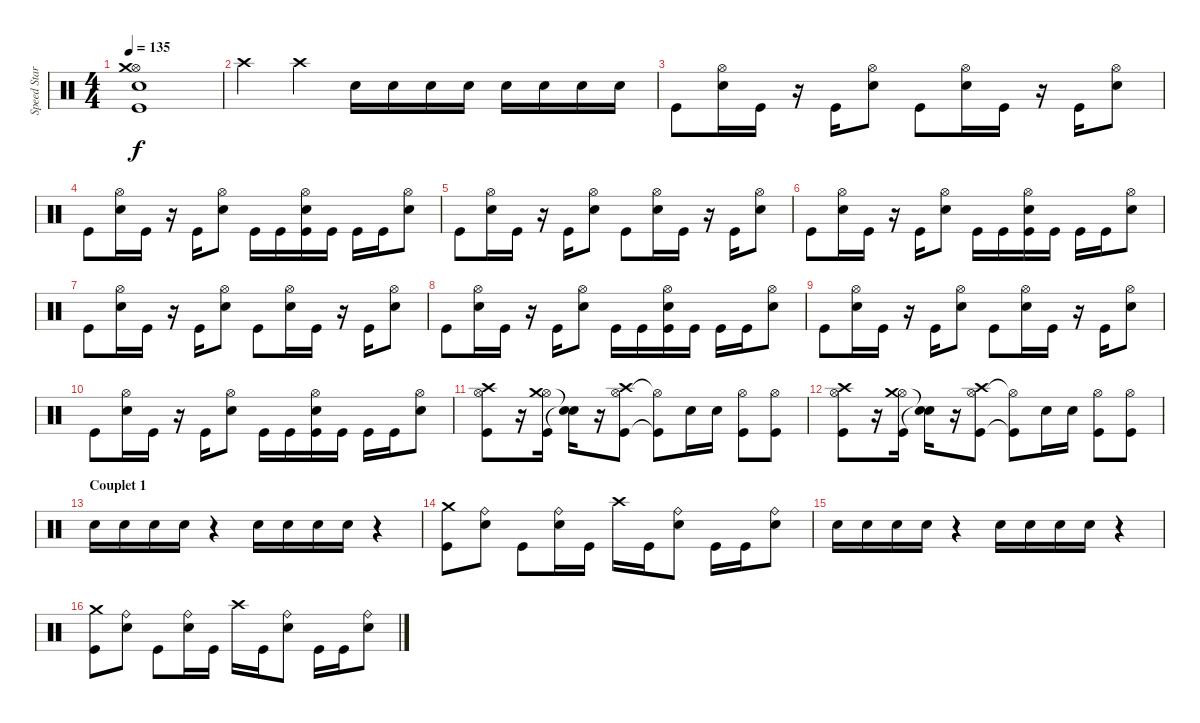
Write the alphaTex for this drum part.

\track ("Speed Star" "Speed Star") {instrument percussion}
\staff {score}
\articulation defaults
\ts (4 4)
\tempo 135
\clef neutral
\ks c
("Kick (hit)" "Snare (hit) 2" "Hi-Hat (open)" "Crash medium (hit)").1{dy f} |
"Crash high (hit)".4 "Crash high (hit)".4 "Snare (hit) 2".16 "Snare (hit) 2".16 "Snare (hit) 2".16 "Snare (hit) 2".16 "Snare (hit) 2".16 "Snare (hit) 2".16 "Snare (hit) 2".16 "Snare (hit) 2".16 |
"Kick (hit)".8 ("Snare (hit) 2" "Hi-Hat (open)").16 "Kick (hit)".16 r.16 "Kick (hit)".16 ("Snare (hit) 2" "Hi-Hat (open)").8 "Kick (hit)".8 ("Snare (hit) 2" "Hi-Hat (open)").16 "Kick (hit)".16 r.16 "Kick (hit)".16 ("Snare (hit) 2" "Hi-Hat (open)").8 |
"Kick (hit)".8 ("Snare (hit) 2" "Hi-Hat (open)").16 "Kick (hit)".16 r.16 "Kick (hit)".16 ("Snare (hit) 2" "Hi-Hat (open)").8 "Kick (hit)".16 "Kick (hit)".16 ("Kick (hit)" "Snare (hit) 2" "Hi-Hat (open)").16 "Kick (hit)".16 "Kick (hit)".16 "Kick (hit)".16 ("Snare (hit) 2" "Hi-Hat (open)").8 |
"Kick (hit)".8 ("Snare (hit) 2" "Hi-Hat (open)").16 "Kick (hit)".16 r.16 "Kick (hit)".16 ("Snare (hit) 2" "Hi-Hat (open)").8 "Kick (hit)".8 ("Snare (hit) 2" "Hi-Hat (open)").16 "Kick (hit)".16 r.16 "Kick (hit)".16 ("Snare (hit) 2" "Hi-Hat (open)").8 |
"Kick (hit)".8 ("Snare (hit) 2" "Hi-Hat (open)").16 "Kick (hit)".16 r.16 "Kick (hit)".16 ("Snare (hit) 2" "Hi-Hat (open)").8 "Kick (hit)".16 "Kick (hit)".16 ("Kick (hit)" "Snare (hit) 2" "Hi-Hat (open)").16 "Kick (hit)".16 "Kick (hit)".16 "Kick (hit)".16 ("Snare (hit) 2" "Hi-Hat (open)").8 |
"Kick (hit)".8 ("Snare (hit) 2" "Hi-Hat (open)").16 "Kick (hit)".16 r.16 "Kick (hit)".16 ("Snare (hit) 2" "Hi-Hat (open)").8 "Kick (hit)".8 ("Snare (hit) 2" "Hi-Hat (open)").16 "Kick (hit)".16 r.16 "Kick (hit)".16 ("Snare (hit) 2" "Hi-Hat (open)").8 |
"Kick (hit)".8 ("Snare (hit) 2" "Hi-Hat (open)").16 "Kick (hit)".16 r.16 "Kick (hit)".16 ("Snare (hit) 2" "Hi-Hat (open)").8 "Kick (hit)".16 "Kick (hit)".16 ("Kick (hit)" "Snare (hit) 2" "Hi-Hat (open)").16 "Kick (hit)".16 "Kick (hit)".16 "Kick (hit)".16 ("Snare (hit) 2" "Hi-Hat (open)").8 |
"Kick (hit)".8 ("Snare (hit) 2" "Hi-Hat (open)").16 "Kick (hit)".16 r.16 "Kick (hit)".16 ("Snare (hit) 2" "Hi-Hat (open)").8 "Kick (hit)".8 ("Snare (hit) 2" "Hi-Hat (open)").16 "Kick (hit)".16 r.16 "Kick (hit)".16 ("Snare (hit) 2" "Hi-Hat (open)").8 |
"Kick (hit)".8 ("Snare (hit) 2" "Hi-Hat (open)").16 "Kick (hit)".16 r.16 "Kick (hit)".16 ("Snare (hit) 2" "Hi-Hat (open)").8 "Kick (hit)".16 "Kick (hit)".16 ("Kick (hit)" "Snare (hit) 2" "Hi-Hat (open)").16 "Kick (hit)".16 "Kick (hit)".16 "Kick (hit)".16 ("Snare (hit) 2" "Hi-Hat (open)").8 |
("Kick (hit)" "Hi-Hat (open)" "Crash high (hit)").8 r.16 ("Kick (hit)" "Hi-Hat (open)" "Crash medium (hit)").16 ("Snare (hit)"{t} "Snare (hit)"{t}).16 r.16 ("Kick (hit)" "Hi-Hat (open)" "Crash high (hit)").8 ("Kick (hit)"{t} "Hi-Hat (open)"{t}).8 "Snare (hit) 2".16 "Snare (hit) 2".16 ("Kick (hit)" "Hi-Hat (open)").8 ("Kick (hit)" "Hi-Hat (open)").8 |
("Kick (hit)" "Hi-Hat (open)" "Crash high (hit)").8 r.16 ("Kick (hit)" "Hi-Hat (open)" "Crash medium (hit)").16 ("Snare (hit)"{t} "Snare (hit)"{t}).16 r.16 ("Kick (hit)" "Hi-Hat (open)" "Crash high (hit)").8 ("Kick (hit)"{t} "Hi-Hat (open)"{t}).8 "Snare (hit) 2".16 "Snare (hit) 2".16 ("Kick (hit)" "Hi-Hat (open)").8 ("Kick (hit)" "Hi-Hat (open)").8 |
\section ("" "Couplet 1")
"Snare (hit) 2".16 "Snare (hit) 2".16 "Snare (hit) 2".16 "Snare (hit) 2".16 r.4 "Snare (hit) 2".16 "Snare (hit) 2".16 "Snare (hit) 2".16 "Snare (hit) 2".16 r.4 |
("Kick (hit)" "Crash medium (hit)").8 ("Snare (hit) 2" "Ride (bell)").8 "Kick (hit)".8 ("Snare (hit) 2" "Ride (bell)").16 "Kick (hit)".16 "Crash high (hit)".16 "Kick (hit)".16 ("Snare (hit) 2" "Ride (bell)").8 "Kick (hit)".16 "Kick (hit)".16 ("Snare (hit) 2" "Ride (bell)").8 |
"Snare (hit) 2".16 "Snare (hit) 2".16 "Snare (hit) 2".16 "Snare (hit) 2".16 r.4 "Snare (hit) 2".16 "Snare (hit) 2".16 "Snare (hit) 2".16 "Snare (hit) 2".16 r.4 |
("Kick (hit)" "Crash medium (hit)").8 ("Snare (hit) 2" "Ride (bell)").8 "Kick (hit)".8 ("Snare (hit) 2" "Ride (bell)").16 "Kick (hit)".16 "Crash high (hit)".16 "Kick (hit)".16 ("Snare (hit) 2" "Ride (bell)").8 "Kick (hit)".16 "Kick (hit)".16 ("Snare (hit) 2" "Ride (bell)").8
